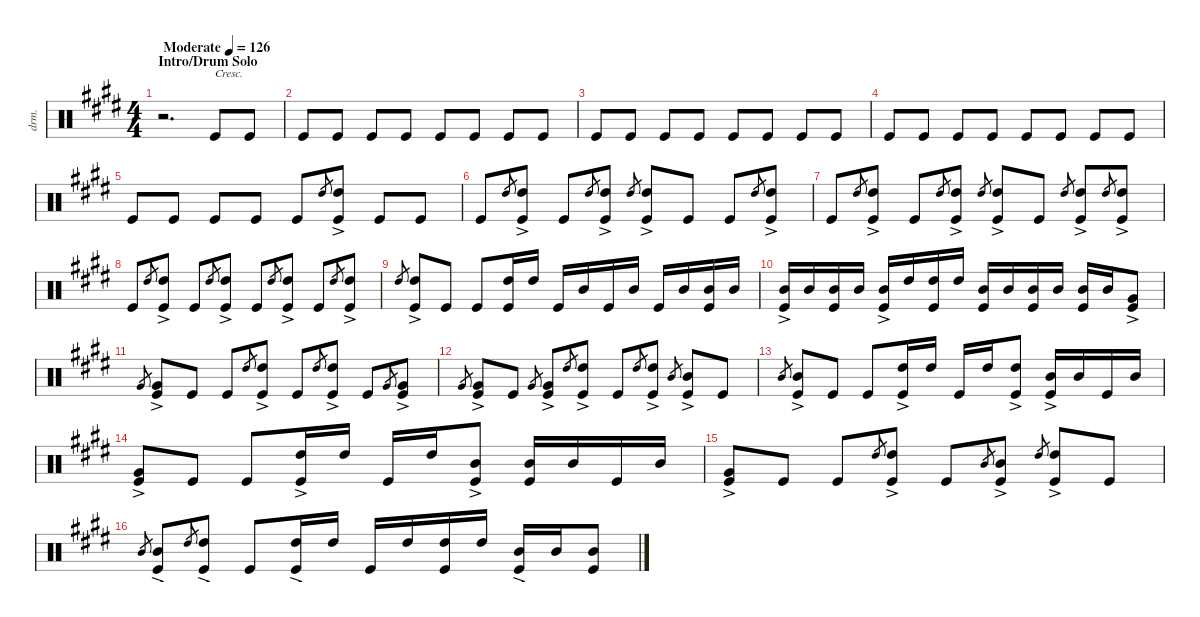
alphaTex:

\defaultSystemsLayout 4
\hideDynamics
\bracketExtendMode nobrackets
\otherSystemsTrackNameOrientation horizontal
\track ("Mitch" "drm.") {instrument percussion}
\staff {score}
\articulation defaults
\ts (4 4)
\beaming (8 2 2 2 2)
\section ("" "Intro/Drum Solo")
\tempo (126 "Moderate")
\clef neutral
\ks e
r.2{d dy mf beam Down} "Kick (hit)"{acc forcenatural}.8{txt "Cresc." beam Up} "Kick (hit)"{acc forcenatural}.8{beam Up} |
"Kick (hit)"{acc forcenatural}.8{beam Up} "Kick (hit)"{acc forcenatural}.8{beam Up} "Kick (hit)"{acc forcenatural}.8{beam Up} "Kick (hit)"{acc forcenatural}.8{beam Up} "Kick (hit)"{acc forcenatural}.8{beam Up} "Kick (hit)"{acc forcenatural}.8{beam Up} "Kick (hit)"{acc forcenatural}.8{beam Up} "Kick (hit)"{acc forcenatural}.8{beam Up} |
"Kick (hit)"{acc forcenatural}.8{beam Up} "Kick (hit)"{acc forcenatural}.8{beam Up} "Kick (hit)"{acc forcenatural}.8{beam Up} "Kick (hit)"{acc forcenatural}.8{beam Up} "Kick (hit)"{acc forcenatural}.8{beam Up} "Kick (hit)"{acc forcenatural}.8{beam Up} "Kick (hit)"{acc forcenatural}.8{beam Up} "Kick (hit)"{acc forcenatural}.8{beam Up} |
"Kick (hit)"{acc forcenatural}.8{dy f beam Up} "Kick (hit)"{acc forcenatural}.8{beam Up} "Kick (hit)"{acc forcenatural}.8{beam Up} "Kick (hit)"{acc forcenatural}.8{beam Up} "Kick (hit)"{acc forcenatural}.8{beam Up} "Kick (hit)"{acc forcenatural}.8{beam Up} "Kick (hit)"{acc forcenatural}.8{beam Up} "Kick (hit)"{acc forcenatural}.8{beam Up} |
"Kick (hit)"{acc forcenatural}.8{beam Up} "Kick (hit)"{acc forcenatural}.8{beam Up} "Kick (hit)"{acc forcenatural}.8{beam Up} "Kick (hit)"{acc forcenatural}.8{beam Up} "Kick (hit)"{acc forcenatural}.8{beam Up} "High Tom (hit)"{acc forcenatural}.8{gr beam Up} ("High Tom (hit)"{ac acc forcenatural} "Kick (hit)"{acc forcenatural}).8{beam Up} "Kick (hit)"{acc forcenatural}.8{beam Up} "Kick (hit)"{acc forcenatural}.8{beam Up} |
"Kick (hit)"{acc forcenatural}.8{beam Up} "High Tom (hit)"{acc forcenatural}.8{gr beam Up} ("High Tom (hit)"{ac acc forcenatural} "Kick (hit)"{acc forcenatural}).8{beam Up} "Kick (hit)"{acc forcenatural}.8{beam Up} "High Tom (hit)"{acc forcenatural}.8{gr beam Up} ("High Tom (hit)"{ac acc forcenatural} "Kick (hit)"{acc forcenatural}).8{beam Up} "High Tom (hit)"{acc forcenatural}.8{gr beam Up} ("High Tom (hit)"{ac acc forcenatural} "Kick (hit)"{acc forcenatural}).8{beam Up} "Kick (hit)"{acc forcenatural}.8{beam Up} "Kick (hit)"{acc forcenatural}.8{beam Up} "High Tom (hit)"{acc forcenatural}.8{gr beam Up} ("High Tom (hit)"{ac acc forcenatural} "Kick (hit)"{acc forcenatural}).8{beam Up} |
"Kick (hit)"{acc forcenatural}.8{beam Up} "High Tom (hit)"{acc forcenatural}.8{gr beam Up} ("High Tom (hit)"{ac acc forcenatural} "Kick (hit)"{acc forcenatural}).8{beam Up} "Kick (hit)"{acc forcenatural}.8{beam Up} "High Tom (hit)"{acc forcenatural}.8{gr beam Up} ("High Tom (hit)"{ac acc forcenatural} "Kick (hit)"{acc forcenatural}).8{beam Up} "High Tom (hit)"{acc forcenatural}.8{gr beam Up} ("High Tom (hit)"{ac acc forcenatural} "Kick (hit)"{acc forcenatural}).8{beam Up} "Kick (hit)"{acc forcenatural}.8{beam Up} "High Tom (hit)"{acc forcenatural}.8{gr beam Up} ("High Tom (hit)"{ac acc forcenatural} "Kick (hit)"{acc forcenatural}).8{beam Up} "High Tom (hit)"{acc forcenatural}.8{gr beam Up} ("High Tom (hit)"{ac acc forcenatural} "Kick (hit)"{acc forcenatural}).8{beam Up} |
"Kick (hit)"{acc forcenatural}.8{beam Up} "High Tom (hit)"{acc forcenatural}.8{gr beam Up} ("High Tom (hit)"{ac acc forcenatural} "Kick (hit)"{acc forcenatural}).8{beam Up} "Kick (hit)"{acc forcenatural}.8{beam Up} "High Tom (hit)"{acc forcenatural}.8{gr beam Up} ("High Tom (hit)"{ac acc forcenatural} "Kick (hit)"{acc forcenatural}).8{beam Up} "Kick (hit)"{acc forcenatural}.8{beam Up} "High Tom (hit)"{acc forcenatural}.8{gr beam Up} ("High Tom (hit)"{ac acc forcenatural} "Kick (hit)"{acc forcenatural}).8{beam Up} "Kick (hit)"{acc forcenatural}.8{beam Up} "High Tom (hit)"{acc forcenatural}.8{gr beam Up} ("High Tom (hit)"{ac acc forcenatural} "Kick (hit)"{acc forcenatural}).8{beam Up} |
"High Tom (hit)"{acc forcenatural}.8{gr beam Up} ("High Tom (hit)"{ac acc forcenatural} "Kick (hit)"{acc forcenatural}).8{beam Up} "Kick (hit)"{acc forcenatural}.8{beam Up} "Kick (hit)"{acc forcenatural}.8{beam Up} ("High Tom (hit)"{acc forcenatural} "Kick (hit)"{acc forcenatural}).16{beam Up} "High Tom (hit)"{acc forcenatural}.16{beam Up} "Kick (hit)"{acc forcenatural}.16{beam Up} "Mid Tom (hit)"{acc forcenatural}.16{beam Up} "Kick (hit)"{acc forcenatural}.16{beam Up} "Mid Tom (hit)"{acc forcenatural}.16{beam Up} "Kick (hit)"{acc forcenatural}.16{beam Up} "Mid Tom (hit)"{acc forcenatural}.16{beam Up} ("Mid Tom (hit)"{acc forcenatural} "Kick (hit)"{acc forcenatural}).16{beam Up} "Mid Tom (hit)"{acc forcenatural}.16{beam Up} |
("Mid Tom (hit)"{ac acc forcenatural} "Kick (hit)"{acc forcenatural}).16{beam Up} "Mid Tom (hit)"{acc forcenatural}.16{beam Up} ("Mid Tom (hit)"{acc forcenatural} "Kick (hit)"{acc forcenatural}).16{beam Up} "Mid Tom (hit)"{acc forcenatural}.16{beam Up} ("Mid Tom (hit)"{ac acc forcenatural} "Kick (hit)"{acc forcenatural}).16{beam Up} "High Tom (hit)"{acc forcenatural}.16{beam Up} ("High Tom (hit)"{acc forcenatural} "Kick (hit)"{acc forcenatural}).16{beam Up} "High Tom (hit)"{acc forcenatural}.16{beam Up} ("Mid Tom (hit)"{acc forcenatural} "Kick (hit)"{acc forcenatural}).16{beam Up} "Mid Tom (hit)"{acc forcenatural}.16{beam Up} ("Mid Tom (hit)"{acc forcenatural} "Kick (hit)"{acc forcenatural}).16{beam Up} "Mid Tom (hit)"{acc forcenatural}.16{beam Up} ("Mid Tom (hit)"{acc forcenatural} "Kick (hit)"{acc forcenatural}).16{beam Up} "Mid Tom (hit)"{acc forcenatural}.16{beam Up} ("Very Low Tom (hit)"{ac acc forcenatural} "Kick (hit)"{acc forcenatural}).8{beam Up} |
"Very Low Tom (hit)"{acc forcenatural}.8{gr dy mf beam Up} ("Very Low Tom (hit)"{ac acc forcenatural} "Kick (hit)"{acc forcenatural}).8{dy f beam Up} "Kick (hit)"{acc forcenatural}.8{beam Up} "Kick (hit)"{acc forcenatural}.8{beam Up} "High Tom (hit)"{acc forcenatural}.8{gr beam Up} ("High Tom (hit)"{ac acc forcenatural} "Kick (hit)"{acc forcenatural}).8{beam Up} "Kick (hit)"{acc forcenatural}.8{beam Up} "High Tom (hit)"{acc forcenatural}.8{gr beam Up} ("High Tom (hit)"{ac acc forcenatural} "Kick (hit)"{acc forcenatural}).8{beam Up} "Kick (hit)"{acc forcenatural}.8{beam Up} "Very Low Tom (hit)"{acc forcenatural}.8{gr beam Up} ("Very Low Tom (hit)"{ac acc forcenatural} "Kick (hit)"{acc forcenatural}).8{beam Up} |
"Very Low Tom (hit)"{acc forcenatural}.8{gr dy mf beam Up} ("Very Low Tom (hit)"{ac acc forcenatural} "Kick (hit)"{acc forcenatural}).8{dy f beam Up} "Kick (hit)"{acc forcenatural}.8{beam Up} "Very Low Tom (hit)"{acc forcenatural}.8{gr beam Up} ("Very Low Tom (hit)"{ac acc forcenatural} "Kick (hit)"{acc forcenatural}).8{beam Up} "High Tom (hit)"{acc forcenatural}.8{gr beam Up} ("High Tom (hit)"{ac acc forcenatural} "Kick (hit)"{acc forcenatural}).8{beam Up} "Kick (hit)"{acc forcenatural}.8{beam Up} "High Tom (hit)"{acc forcenatural}.8{gr beam Up} ("High Tom (hit)"{ac acc forcenatural} "Kick (hit)"{acc forcenatural}).8{beam Up} "Mid Tom (hit)"{acc forcenatural}.8{gr beam Up} ("Mid Tom (hit)"{ac acc forcenatural} "Kick (hit)"{acc forcenatural}).8{beam Up} "Kick (hit)"{acc forcenatural}.8{beam Up} |
"Mid Tom (hit)"{acc forcenatural}.8{gr beam Up} ("Mid Tom (hit)"{ac acc forcenatural} "Kick (hit)"{acc forcenatural}).8{beam Up} "Kick (hit)"{acc forcenatural}.8{beam Up} "Kick (hit)"{acc forcenatural}.8{beam Up} ("High Tom (hit)"{ac acc forcenatural} "Kick (hit)"{acc forcenatural}).16{beam Up} "High Tom (hit)"{acc forcenatural}.16{beam Up} "Kick (hit)"{acc forcenatural}.16{beam Up} "High Tom (hit)"{acc forcenatural}.16{beam Up} ("High Tom (hit)"{ac acc forcenatural} "Kick (hit)"{acc forcenatural}).8{beam Up} ("Mid Tom (hit)"{ac acc forcenatural} "Kick (hit)"{acc forcenatural}).16{beam Up} "Mid Tom (hit)"{acc forcenatural}.16{beam Up} "Kick (hit)"{acc forcenatural}.16{beam Up} "Mid Tom (hit)"{acc forcenatural}.16{beam Up} |
("Very Low Tom (hit)"{ac acc forcenatural} "Kick (hit)"{acc forcenatural}).8{beam Up} "Kick (hit)"{acc forcenatural}.8{beam Up} "Kick (hit)"{acc forcenatural}.8{beam Up} ("High Tom (hit)"{ac acc forcenatural} "Kick (hit)"{acc forcenatural}).16{beam Up} "High Tom (hit)"{acc forcenatural}.16{beam Up} "Kick (hit)"{acc forcenatural}.16{beam Up} "High Tom (hit)"{acc forcenatural}.16{beam Up} ("Mid Tom (hit)"{ac acc forcenatural} "Kick (hit)"{acc forcenatural}).8{beam Up} ("Mid Tom (hit)"{acc forcenatural} "Kick (hit)"{acc forcenatural}).16{beam Up} "Mid Tom (hit)"{acc forcenatural}.16{beam Up} "Kick (hit)"{acc forcenatural}.16{beam Up} "Mid Tom (hit)"{acc forcenatural}.16{beam Up} |
("Very Low Tom (hit)"{ac acc forcenatural} "Kick (hit)"{acc forcenatural}).8{beam Up} "Kick (hit)"{acc forcenatural}.8{beam Up} "Kick (hit)"{acc forcenatural}.8{beam Up} "High Tom (hit)"{acc forcenatural}.8{gr beam Up} ("High Tom (hit)"{ac acc forcenatural} "Kick (hit)"{acc forcenatural}).8{beam Up} "Kick (hit)"{acc forcenatural}.8{beam Up} "Mid Tom (hit)"{acc forcenatural}.8{gr dy mf beam Up} ("Mid Tom (hit)"{ac acc forcenatural} "Kick (hit)"{acc forcenatural}).8{dy f beam Up} "High Tom (hit)"{acc forcenatural}.8{gr beam Up} ("High Tom (hit)"{ac acc forcenatural} "Kick (hit)"{acc forcenatural}).8{beam Up} "Kick (hit)"{acc forcenatural}.8{beam Up} |
"Mid Tom (hit)"{acc forcenatural}.8{gr dy mf beam Up} ("Mid Tom (hit)"{ac acc forcenatural} "Kick (hit)"{acc forcenatural}).8{dy f beam Up} "High Tom (hit)"{acc forcenatural}.8{gr beam Up} ("High Tom (hit)"{ac acc forcenatural} "Kick (hit)"{acc forcenatural}).8{beam Up} "Kick (hit)"{acc forcenatural}.8{beam Up} ("High Tom (hit)"{ac acc forcenatural} "Kick (hit)"{acc forcenatural}).16{beam Up} "High Tom (hit)"{acc forcenatural}.16{beam Up} "Kick (hit)"{acc forcenatural}.16{beam Up} "High Tom (hit)"{acc forcenatural}.16{beam Up} ("High Tom (hit)"{acc forcenatural} "Kick (hit)"{acc forcenatural}).16{beam Up} "High Tom (hit)"{acc forcenatural}.16{beam Up} ("Mid Tom (hit)"{ac acc forcenatural} "Kick (hit)"{acc forcenatural}).16{beam Up} "Mid Tom (hit)"{acc forcenatural}.16{beam Up} ("Mid Tom (hit)"{acc forcenatural} "Kick (hit)"{acc forcenatural}).8{beam Up}
